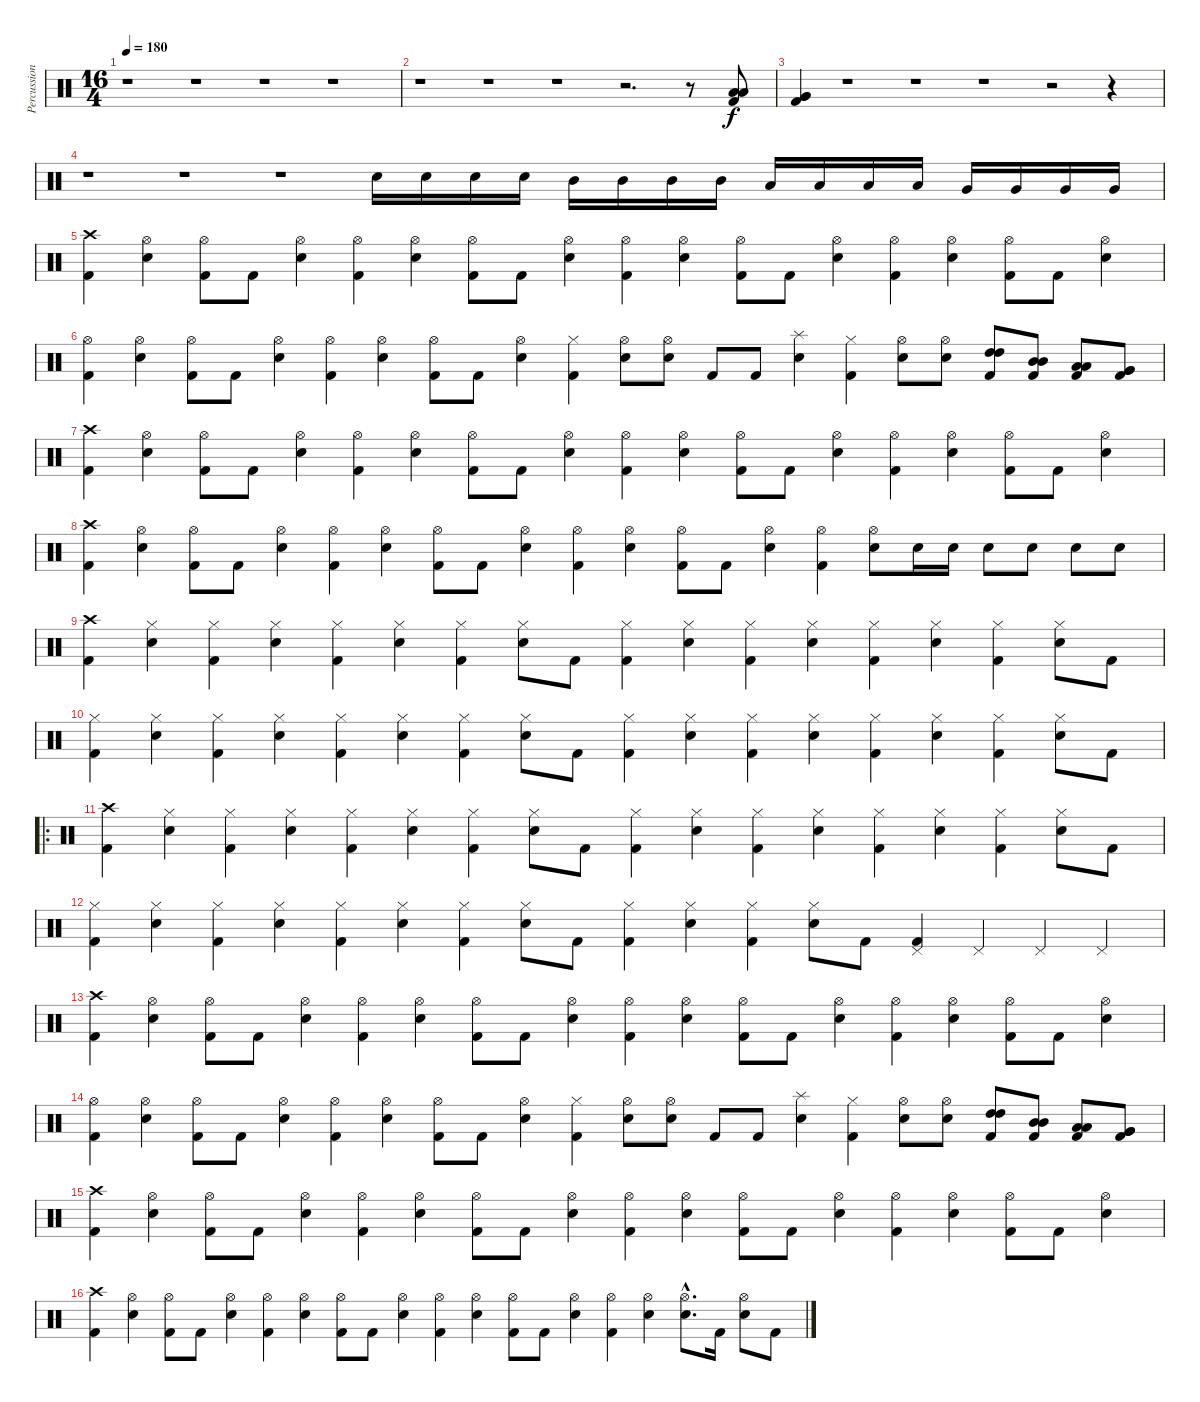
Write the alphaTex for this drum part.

\track ("Percussions" "Percussion") {instrument percussion}
\staff {score}
\articulation defaults
\ts (16 4)
\tempo 180
\clef neutral
\ks c
r.1{dy f} r.1 r.1 r.1 |
r.1 r.1 r.1 r.2{d} r.8 ("Low Tom (hit)" "Low Tom (hit)" "Kick (hit) 2").8 |
("Very Low Tom (hit)" "Very Low Tom (hit)" "Kick (hit) 2").4 r.1 r.1 r.1 r.2 r.4 |
r.1 r.1 r.1 "Electric Snare (hit)".16 "Electric Snare (hit)".16 "Electric Snare (hit)".16 "Electric Snare (hit)".16 "Mid Tom (hit)".16 "Mid Tom (hit)".16 "Mid Tom (hit)".16 "Mid Tom (hit)".16 "Low Tom (hit)".16 "Low Tom (hit)".16 "Low Tom (hit)".16 "Low Tom (hit)".16 "Very Low Tom (hit)".16 "Very Low Tom (hit)".16 "Very Low Tom (hit)".16 "Very Low Tom (hit)".16 |
("Crash high (hit)" "Kick (hit) 2").4 ("Hi-Hat (open)" "Electric Snare (hit)").4 ("Hi-Hat (open)" "Kick (hit) 2").8 "Kick (hit) 2".8 ("Hi-Hat (open)" "Electric Snare (hit)").4 ("Hi-Hat (open)" "Kick (hit) 2").4 ("Hi-Hat (open)" "Electric Snare (hit)").4 ("Hi-Hat (open)" "Kick (hit) 2").8 "Kick (hit) 2".8 ("Hi-Hat (open)" "Electric Snare (hit)").4 ("Hi-Hat (open)" "Kick (hit) 2").4 ("Hi-Hat (open)" "Electric Snare (hit)").4 ("Hi-Hat (open)" "Kick (hit) 2").8 "Kick (hit) 2".8 ("Hi-Hat (open)" "Electric Snare (hit)").4 ("Hi-Hat (open)" "Kick (hit) 2").4 ("Hi-Hat (open)" "Electric Snare (hit)").4 ("Hi-Hat (open)" "Kick (hit) 2").8 "Kick (hit) 2".8 ("Hi-Hat (open)" "Electric Snare (hit)").4 |
("Hi-Hat (open)" "Kick (hit) 2").4 ("Hi-Hat (open)" "Electric Snare (hit)").4 ("Hi-Hat (open)" "Kick (hit) 2").8 "Kick (hit) 2".8 ("Hi-Hat (open)" "Electric Snare (hit)").4 ("Hi-Hat (open)" "Kick (hit) 2").4 ("Hi-Hat (open)" "Electric Snare (hit)").4 ("Hi-Hat (open)" "Kick (hit) 2").8 "Kick (hit) 2".8 ("Hi-Hat (open)" "Electric Snare (hit)").4 ("Hi-Hat (closed)" "Kick (hit) 2").4 ("Hi-Hat (open)" "Electric Snare (hit)").8 ("Hi-Hat (open)" "Electric Snare (hit)").8 "Kick (hit) 2".8 "Kick (hit) 2".8 ("Splash (hit)" "Electric Snare (hit)").4 ("Hi-Hat (closed)" "Kick (hit) 2").4 ("Hi-Hat (open)" "Electric Snare (hit)").8 ("Hi-Hat (open)" "Electric Snare (hit)").8 ("Kick (hit) 2" "High Tom (hit)" "High Tom (hit)").8 ("Kick (hit) 2" "Mid Tom (hit)" "Mid Tom (hit)").8 ("Kick (hit) 2" "Low Tom (hit)" "Low Tom (hit)").8 ("Kick (hit) 2" "Very Low Tom (hit)" "Very Low Tom (hit)").8 |
("Crash high (hit)" "Kick (hit) 2").4 ("Hi-Hat (open)" "Electric Snare (hit)").4 ("Hi-Hat (open)" "Kick (hit) 2").8 "Kick (hit) 2".8 ("Hi-Hat (open)" "Electric Snare (hit)").4 ("Hi-Hat (open)" "Kick (hit) 2").4 ("Hi-Hat (open)" "Electric Snare (hit)").4 ("Hi-Hat (open)" "Kick (hit) 2").8 "Kick (hit) 2".8 ("Hi-Hat (open)" "Electric Snare (hit)").4 ("Hi-Hat (open)" "Kick (hit) 2").4 ("Hi-Hat (open)" "Electric Snare (hit)").4 ("Hi-Hat (open)" "Kick (hit) 2").8 "Kick (hit) 2".8 ("Hi-Hat (open)" "Electric Snare (hit)").4 ("Hi-Hat (open)" "Kick (hit) 2").4 ("Hi-Hat (open)" "Electric Snare (hit)").4 ("Hi-Hat (open)" "Kick (hit) 2").8 "Kick (hit) 2".8 ("Hi-Hat (open)" "Electric Snare (hit)").4 |
("Crash high (hit)" "Kick (hit) 2").4 ("Hi-Hat (open)" "Electric Snare (hit)").4 ("Hi-Hat (open)" "Kick (hit) 2").8 "Kick (hit) 2".8 ("Hi-Hat (open)" "Electric Snare (hit)").4 ("Hi-Hat (open)" "Kick (hit) 2").4 ("Hi-Hat (open)" "Electric Snare (hit)").4 ("Hi-Hat (open)" "Kick (hit) 2").8 "Kick (hit) 2".8 ("Hi-Hat (open)" "Electric Snare (hit)").4 ("Hi-Hat (open)" "Kick (hit) 2").4 ("Hi-Hat (open)" "Electric Snare (hit)").4 ("Hi-Hat (open)" "Kick (hit) 2").8 "Kick (hit) 2".8 ("Hi-Hat (open)" "Electric Snare (hit)").4 ("Hi-Hat (open)" "Kick (hit) 2").4 ("Hi-Hat (open)" "Electric Snare (hit)").8 "Electric Snare (hit)".16 "Electric Snare (hit)".16 "Electric Snare (hit)".8 "Electric Snare (hit)".8 "Electric Snare (hit)".8 "Electric Snare (hit)".8 |
("Crash high (hit)" "Kick (hit) 2").4 ("Hi-Hat (closed)" "Electric Snare (hit)").4 ("Hi-Hat (closed)" "Kick (hit) 2").4 ("Hi-Hat (closed)" "Electric Snare (hit)").4 ("Hi-Hat (closed)" "Kick (hit) 2").4 ("Hi-Hat (closed)" "Electric Snare (hit)").4 ("Hi-Hat (closed)" "Kick (hit) 2").4 ("Hi-Hat (closed)" "Electric Snare (hit)").8 "Kick (hit) 2".8 ("Hi-Hat (closed)" "Kick (hit) 2").4 ("Hi-Hat (closed)" "Electric Snare (hit)").4 ("Hi-Hat (closed)" "Kick (hit) 2").4 ("Hi-Hat (closed)" "Electric Snare (hit)").4 ("Hi-Hat (closed)" "Kick (hit) 2").4 ("Hi-Hat (closed)" "Electric Snare (hit)").4 ("Hi-Hat (closed)" "Kick (hit) 2").4 ("Hi-Hat (closed)" "Electric Snare (hit)").8 "Kick (hit) 2".8 |
("Hi-Hat (closed)" "Kick (hit) 2").4 ("Hi-Hat (closed)" "Electric Snare (hit)").4 ("Hi-Hat (closed)" "Kick (hit) 2").4 ("Hi-Hat (closed)" "Electric Snare (hit)").4 ("Hi-Hat (closed)" "Kick (hit) 2").4 ("Hi-Hat (closed)" "Electric Snare (hit)").4 ("Hi-Hat (closed)" "Kick (hit) 2").4 ("Hi-Hat (closed)" "Electric Snare (hit)").8 "Kick (hit) 2".8 ("Hi-Hat (closed)" "Kick (hit) 2").4 ("Hi-Hat (closed)" "Electric Snare (hit)").4 ("Hi-Hat (closed)" "Kick (hit) 2").4 ("Hi-Hat (closed)" "Electric Snare (hit)").4 ("Hi-Hat (closed)" "Kick (hit) 2").4 ("Hi-Hat (closed)" "Electric Snare (hit)").4 ("Hi-Hat (closed)" "Kick (hit) 2").4 ("Hi-Hat (closed)" "Electric Snare (hit)").8 "Kick (hit) 2".8 |
\ro
("Crash high (hit)" "Kick (hit) 2").4 ("Hi-Hat (closed)" "Electric Snare (hit)").4 ("Hi-Hat (closed)" "Kick (hit) 2").4 ("Hi-Hat (closed)" "Electric Snare (hit)").4 ("Hi-Hat (closed)" "Kick (hit) 2").4 ("Hi-Hat (closed)" "Electric Snare (hit)").4 ("Hi-Hat (closed)" "Kick (hit) 2").4 ("Hi-Hat (closed)" "Electric Snare (hit)").8 "Kick (hit) 2".8 ("Hi-Hat (closed)" "Kick (hit) 2").4 ("Hi-Hat (closed)" "Electric Snare (hit)").4 ("Hi-Hat (closed)" "Kick (hit) 2").4 ("Hi-Hat (closed)" "Electric Snare (hit)").4 ("Hi-Hat (closed)" "Kick (hit) 2").4 ("Hi-Hat (closed)" "Electric Snare (hit)").4 ("Hi-Hat (closed)" "Kick (hit) 2").4 ("Hi-Hat (closed)" "Electric Snare (hit)").8 "Kick (hit) 2".8 |
("Hi-Hat (closed)" "Kick (hit) 2").4 ("Hi-Hat (closed)" "Electric Snare (hit)").4 ("Hi-Hat (closed)" "Kick (hit) 2").4 ("Hi-Hat (closed)" "Electric Snare (hit)").4 ("Hi-Hat (closed)" "Kick (hit) 2").4 ("Hi-Hat (closed)" "Electric Snare (hit)").4 ("Hi-Hat (closed)" "Kick (hit) 2").4 ("Hi-Hat (closed)" "Electric Snare (hit)").8 "Kick (hit) 2".8 ("Hi-Hat (closed)" "Kick (hit) 2").4 ("Hi-Hat (closed)" "Electric Snare (hit)").4 ("Hi-Hat (closed)" "Kick (hit) 2").4 ("Hi-Hat (closed)" "Electric Snare (hit)").8 "Kick (hit) 2".8 ("Pedal Hi-Hat (hit)" "Kick (hit) 2").4 "Pedal Hi-Hat (hit)".4 "Pedal Hi-Hat (hit)".4 "Pedal Hi-Hat (hit)".4 |
("Crash high (hit)" "Kick (hit) 2").4 ("Hi-Hat (open)" "Electric Snare (hit)").4 ("Hi-Hat (open)" "Kick (hit) 2").8 "Kick (hit) 2".8 ("Hi-Hat (open)" "Electric Snare (hit)").4 ("Hi-Hat (open)" "Kick (hit) 2").4 ("Hi-Hat (open)" "Electric Snare (hit)").4 ("Hi-Hat (open)" "Kick (hit) 2").8 "Kick (hit) 2".8 ("Hi-Hat (open)" "Electric Snare (hit)").4 ("Hi-Hat (open)" "Kick (hit) 2").4 ("Hi-Hat (open)" "Electric Snare (hit)").4 ("Hi-Hat (open)" "Kick (hit) 2").8 "Kick (hit) 2".8 ("Hi-Hat (open)" "Electric Snare (hit)").4 ("Hi-Hat (open)" "Kick (hit) 2").4 ("Hi-Hat (open)" "Electric Snare (hit)").4 ("Hi-Hat (open)" "Kick (hit) 2").8 "Kick (hit) 2".8 ("Hi-Hat (open)" "Electric Snare (hit)").4 |
("Hi-Hat (open)" "Kick (hit) 2").4 ("Hi-Hat (open)" "Electric Snare (hit)").4 ("Hi-Hat (open)" "Kick (hit) 2").8 "Kick (hit) 2".8 ("Hi-Hat (open)" "Electric Snare (hit)").4 ("Hi-Hat (open)" "Kick (hit) 2").4 ("Hi-Hat (open)" "Electric Snare (hit)").4 ("Hi-Hat (open)" "Kick (hit) 2").8 "Kick (hit) 2".8 ("Hi-Hat (open)" "Electric Snare (hit)").4 ("Hi-Hat (closed)" "Kick (hit) 2").4 ("Hi-Hat (open)" "Electric Snare (hit)").8 ("Hi-Hat (open)" "Electric Snare (hit)").8 "Kick (hit) 2".8 "Kick (hit) 2".8 ("Splash (hit)" "Electric Snare (hit)").4 ("Hi-Hat (closed)" "Kick (hit) 2").4 ("Hi-Hat (open)" "Electric Snare (hit)").8 ("Hi-Hat (open)" "Electric Snare (hit)").8 ("Kick (hit) 2" "High Tom (hit)" "High Tom (hit)").8 ("Kick (hit) 2" "Mid Tom (hit)" "Mid Tom (hit)").8 ("Kick (hit) 2" "Low Tom (hit)" "Low Tom (hit)").8 ("Kick (hit) 2" "Very Low Tom (hit)" "Very Low Tom (hit)").8 |
("Crash high (hit)" "Kick (hit) 2").4 ("Hi-Hat (open)" "Electric Snare (hit)").4 ("Hi-Hat (open)" "Kick (hit) 2").8 "Kick (hit) 2".8 ("Hi-Hat (open)" "Electric Snare (hit)").4 ("Hi-Hat (open)" "Kick (hit) 2").4 ("Hi-Hat (open)" "Electric Snare (hit)").4 ("Hi-Hat (open)" "Kick (hit) 2").8 "Kick (hit) 2".8 ("Hi-Hat (open)" "Electric Snare (hit)").4 ("Hi-Hat (open)" "Kick (hit) 2").4 ("Hi-Hat (open)" "Electric Snare (hit)").4 ("Hi-Hat (open)" "Kick (hit) 2").8 "Kick (hit) 2".8 ("Hi-Hat (open)" "Electric Snare (hit)").4 ("Hi-Hat (open)" "Kick (hit) 2").4 ("Hi-Hat (open)" "Electric Snare (hit)").4 ("Hi-Hat (open)" "Kick (hit) 2").8 "Kick (hit) 2".8 ("Hi-Hat (open)" "Electric Snare (hit)").4 |
("Crash high (hit)" "Kick (hit) 2").4 ("Hi-Hat (open)" "Electric Snare (hit)").4 ("Hi-Hat (open)" "Kick (hit) 2").8 "Kick (hit) 2".8 ("Hi-Hat (open)" "Electric Snare (hit)").4 ("Hi-Hat (open)" "Kick (hit) 2").4 ("Hi-Hat (open)" "Electric Snare (hit)").4 ("Hi-Hat (open)" "Kick (hit) 2").8 "Kick (hit) 2".8 ("Hi-Hat (open)" "Electric Snare (hit)").4 ("Hi-Hat (open)" "Kick (hit) 2").4 ("Hi-Hat (open)" "Electric Snare (hit)").4 ("Hi-Hat (open)" "Kick (hit) 2").8 "Kick (hit) 2".8 ("Hi-Hat (open)" "Electric Snare (hit)").4 ("Hi-Hat (open)" "Kick (hit) 2").4 ("Hi-Hat (open)" "Electric Snare (hit)").4 ("Hi-Hat (open)"{hac} "Electric Snare (hit)"{hac}).8{d} "Kick (hit) 2".16 ("Hi-Hat (open)" "Electric Snare (hit)").8 "Kick (hit) 2".8
